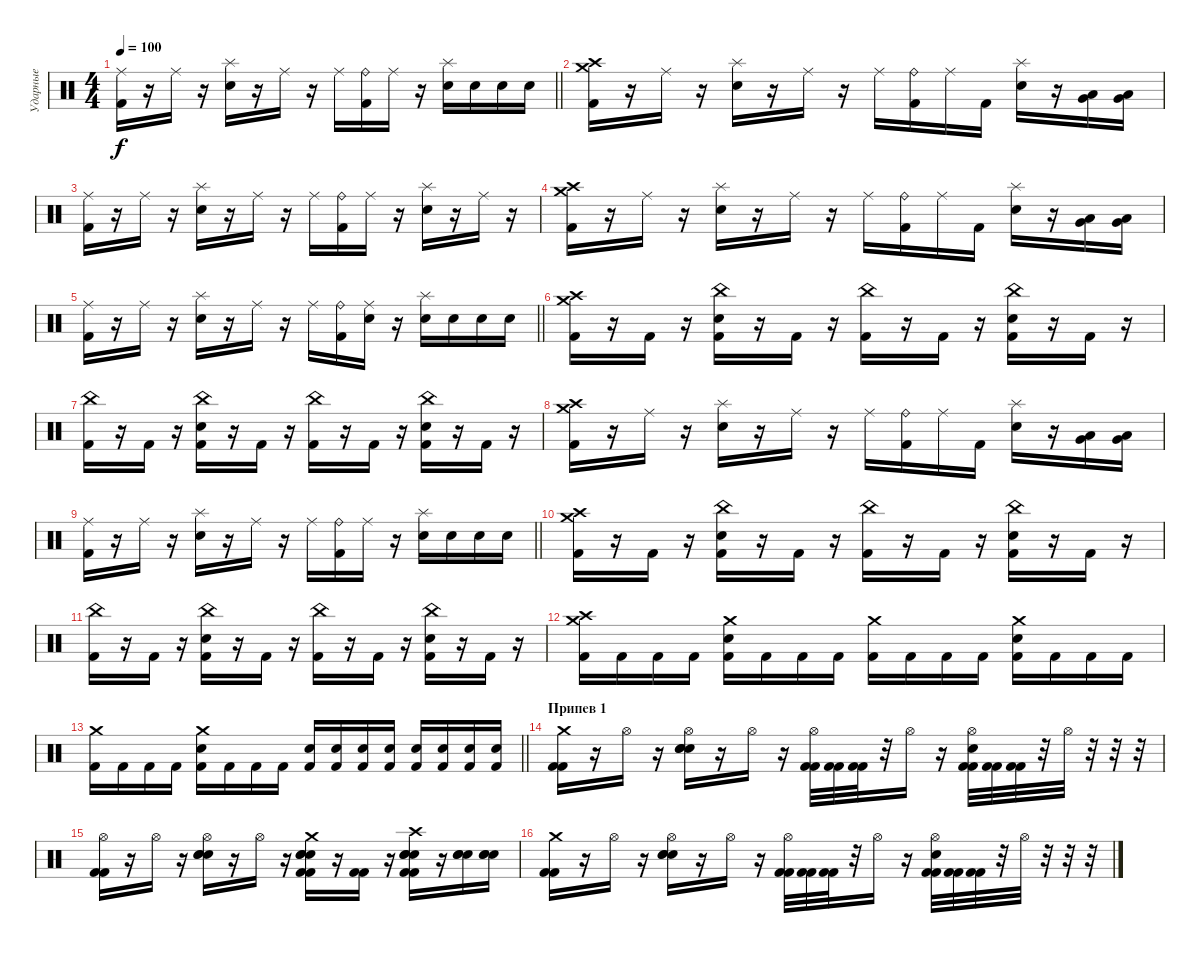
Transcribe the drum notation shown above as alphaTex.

\track ("Ударные" "Ударные") {instrument percussion}
\staff {score}
\articulation defaults
\ts (4 4)
\tempo 100
\clef neutral
\barLineRight lightlight
\ks c
("Ride (middle)" "Kick (hit) 2").16{dy f} r.16 "Ride (middle)".16 r.16 ("Splash (hit)" "Electric Snare (hit)").16 r.16 "Ride (middle)".16 r.16 "Ride (middle)".16 ("Ride (bell)" "Kick (hit) 2").16 "Ride (middle)".16 r.16 ("Splash (hit)" "Electric Snare (hit)").16 "Electric Snare (hit)".16 "Electric Snare (hit)".16 "Electric Snare (hit)".16 |
("Crash medium (hit)" "Crash high (hit)" "Kick (hit) 2").16 r.16 "Ride (middle)".16 r.16 ("Splash (hit)" "Electric Snare (hit)").16 r.16 "Ride (middle)".16 r.16 "Ride (middle)".16 ("Ride (bell)" "Kick (hit) 2").16 "Ride (middle)".16 "Kick (hit) 2".16 ("Splash (hit)" "Electric Snare (hit)").16 r.16 ("Very Low Tom (hit)" "Low Floor Tom (hit)").16 ("Very Low Tom (hit)" "Low Floor Tom (hit)").16 |
("Ride (middle)" "Kick (hit) 2").16 r.16 "Ride (middle)".16 r.16 ("Splash (hit)" "Electric Snare (hit)").16 r.16 "Ride (middle)".16 r.16 "Ride (middle)".16 ("Ride (bell)" "Kick (hit) 2").16 "Ride (middle)".16 r.16 ("Splash (hit)" "Electric Snare (hit)").16 r.16 "Ride (middle)".16 r.16 |
("Crash medium (hit)" "Crash high (hit)" "Kick (hit) 2").16 r.16 "Ride (middle)".16 r.16 ("Splash (hit)" "Electric Snare (hit)").16 r.16 "Ride (middle)".16 r.16 "Ride (middle)".16 ("Ride (bell)" "Kick (hit) 2").16 "Ride (middle)".16 "Kick (hit) 2".16 ("Splash (hit)" "Electric Snare (hit)").16 r.16 ("Very Low Tom (hit)" "Low Floor Tom (hit)").16 ("Very Low Tom (hit)" "Low Floor Tom (hit)").16 |
\barLineRight lightlight
("Ride (middle)" "Kick (hit) 2").16 r.16 "Ride (middle)".16 r.16 ("Splash (hit)" "Electric Snare (hit)").16 r.16 "Ride (middle)".16 r.16 "Ride (middle)".16 ("Ride (bell)" "Kick (hit) 2").16 ("Ride (middle)" "Electric Snare (hit)").16 r.16 ("Splash (hit)" "Electric Snare (hit)").16 "Electric Snare (hit)".16 "Electric Snare (hit)".16 "Electric Snare (hit)".16 |
("Crash medium (hit)" "Crash high (hit)" "Kick (hit) 2").16 r.16 "Kick (hit) 2".16 r.16 ("China (hit)" "Electric Snare (hit)" "Kick (hit) 2").16 r.16 "Kick (hit) 2".16 r.16 ("China (hit)" "Kick (hit) 2").16 r.16 "Kick (hit) 2".16 r.16 ("China (hit)" "Electric Snare (hit)" "Kick (hit) 2").16 r.16 "Kick (hit) 2".16 r.16 |
("China (hit)" "Kick (hit) 2").16 r.16 "Kick (hit) 2".16 r.16 ("China (hit)" "Electric Snare (hit)" "Kick (hit) 2").16 r.16 "Kick (hit) 2".16 r.16 ("China (hit)" "Kick (hit) 2").16 r.16 "Kick (hit) 2".16 r.16 ("China (hit)" "Electric Snare (hit)" "Kick (hit) 2").16 r.16 "Kick (hit) 2".16 r.16 |
("Crash medium (hit)" "Crash high (hit)" "Kick (hit) 2").16 r.16 "Ride (middle)".16 r.16 ("Splash (hit)" "Electric Snare (hit)").16 r.16 "Ride (middle)".16 r.16 "Ride (middle)".16 ("Ride (bell)" "Kick (hit) 2").16 "Ride (middle)".16 "Kick (hit) 2".16 ("Splash (hit)" "Electric Snare (hit)").16 r.16 ("Very Low Tom (hit)" "Low Floor Tom (hit)").16 ("Very Low Tom (hit)" "Low Floor Tom (hit)").16 |
\barLineRight lightlight
("Ride (middle)" "Kick (hit) 2").16 r.16 "Ride (middle)".16 r.16 ("Splash (hit)" "Electric Snare (hit)").16 r.16 "Ride (middle)".16 r.16 "Ride (middle)".16 ("Ride (bell)" "Kick (hit) 2").16 "Ride (middle)".16 r.16 ("Splash (hit)" "Electric Snare (hit)").16 "Electric Snare (hit)".16 "Electric Snare (hit)".16 "Electric Snare (hit)".16 |
("Crash medium (hit)" "Crash high (hit)" "Kick (hit) 2").16 r.16 "Kick (hit) 2".16 r.16 ("China (hit)" "Electric Snare (hit)" "Kick (hit) 2").16 r.16 "Kick (hit) 2".16 r.16 ("China (hit)" "Kick (hit) 2").16 r.16 "Kick (hit) 2".16 r.16 ("China (hit)" "Electric Snare (hit)" "Kick (hit) 2").16 r.16 "Kick (hit) 2".16 r.16 |
("China (hit)" "Kick (hit) 2").16 r.16 "Kick (hit) 2".16 r.16 ("China (hit)" "Electric Snare (hit)" "Kick (hit) 2").16 r.16 "Kick (hit) 2".16 r.16 ("China (hit)" "Kick (hit) 2").16 r.16 "Kick (hit) 2".16 r.16 ("China (hit)" "Electric Snare (hit)" "Kick (hit) 2").16 r.16 "Kick (hit) 2".16 r.16 |
("Crash medium (hit)" "Crash high (hit)" "Kick (hit) 2").16 "Kick (hit) 2".16 "Kick (hit) 2".16 "Kick (hit) 2".16 ("Crash medium (hit)" "Electric Snare (hit)" "Kick (hit) 2").16 "Kick (hit) 2".16 "Kick (hit) 2".16 "Kick (hit) 2".16 ("Crash medium (hit)" "Kick (hit) 2").16 "Kick (hit) 2".16 "Kick (hit) 2".16 "Kick (hit) 2".16 ("Crash medium (hit)" "Electric Snare (hit)" "Kick (hit) 2").16 "Kick (hit) 2".16 "Kick (hit) 2".16 "Kick (hit) 2".16 |
\barLineRight lightlight
("Crash medium (hit)" "Kick (hit) 2").16 "Kick (hit) 2".16 "Kick (hit) 2".16 "Kick (hit) 2".16 ("Crash medium (hit)" "Electric Snare (hit)" "Kick (hit) 2").16 "Kick (hit) 2".16 "Kick (hit) 2".16 "Kick (hit) 2".16 ("Electric Snare (hit)" "Kick (hit) 2").16 ("Electric Snare (hit)" "Kick (hit) 2").16 ("Electric Snare (hit)" "Kick (hit) 2").16 ("Electric Snare (hit)" "Kick (hit) 2").16 ("Electric Snare (hit)" "Kick (hit) 2").16 ("Electric Snare (hit)" "Kick (hit) 2").16 ("Electric Snare (hit)" "Kick (hit) 2").16 ("Electric Snare (hit)" "Kick (hit) 2").16 |
\section ("" "Припев 1")
("Crash medium (hit)" "Kick (hit) 2" "Kick (hit) 2").16 r.16 "Hi-Hat (open)".16 r.16 ("Hi-Hat (open)" "Electric Snare (hit)" "Electric Snare (hit)" "Electric Snare (hit)").16 r.16 "Hi-Hat (open)".16 r.16 ("Hi-Hat (open)" "Kick (hit) 2" "Kick (hit) 2").32 ("Kick (hit) 2" "Kick (hit) 2").32 ("Kick (hit) 2" "Kick (hit) 2").32 r.32 "Hi-Hat (open)".16 r.16 ("Hi-Hat (open)" "Electric Snare (hit)" "Kick (hit) 2" "Kick (hit) 2").32 ("Kick (hit) 2" "Kick (hit) 2").32 ("Kick (hit) 2" "Kick (hit) 2").32 r.32 "Hi-Hat (open)".32 r.32 r.32 r.32 |
("Hi-Hat (open)" "Kick (hit) 2" "Kick (hit) 2").16 r.16 "Hi-Hat (open)".16 r.16 ("Hi-Hat (open)" "Electric Snare (hit)" "Electric Snare (hit)" "Electric Snare (hit)").16 r.16 "Hi-Hat (open)".16 r.16 ("Crash medium (hit)" "Electric Snare (hit)" "Electric Snare (hit)" "Electric Snare (hit)" "Kick (hit) 2" "Kick (hit) 2").16 r.16 ("Kick (hit) 2" "Kick (hit) 2").16 r.16 ("Crash high (hit)" "Electric Snare (hit)" "Electric Snare (hit)" "Electric Snare (hit)" "Kick (hit) 2" "Kick (hit) 2").16 r.16 ("Electric Snare (hit)" "Electric Snare (hit)" "Electric Snare (hit)").16 ("Electric Snare (hit)" "Electric Snare (hit)" "Electric Snare (hit)").16 |
("Crash medium (hit)" "Kick (hit) 2" "Kick (hit) 2").16 r.16 "Hi-Hat (open)".16 r.16 ("Hi-Hat (open)" "Electric Snare (hit)" "Electric Snare (hit)" "Electric Snare (hit)").16 r.16 "Hi-Hat (open)".16 r.16 ("Hi-Hat (open)" "Kick (hit) 2" "Kick (hit) 2").32 ("Kick (hit) 2" "Kick (hit) 2").32 ("Kick (hit) 2" "Kick (hit) 2").32 r.32 "Hi-Hat (open)".16 r.16 ("Hi-Hat (open)" "Electric Snare (hit)" "Kick (hit) 2" "Kick (hit) 2").32 ("Kick (hit) 2" "Kick (hit) 2").32 ("Kick (hit) 2" "Kick (hit) 2").32 r.32 "Hi-Hat (open)".32 r.32 r.32 r.32
